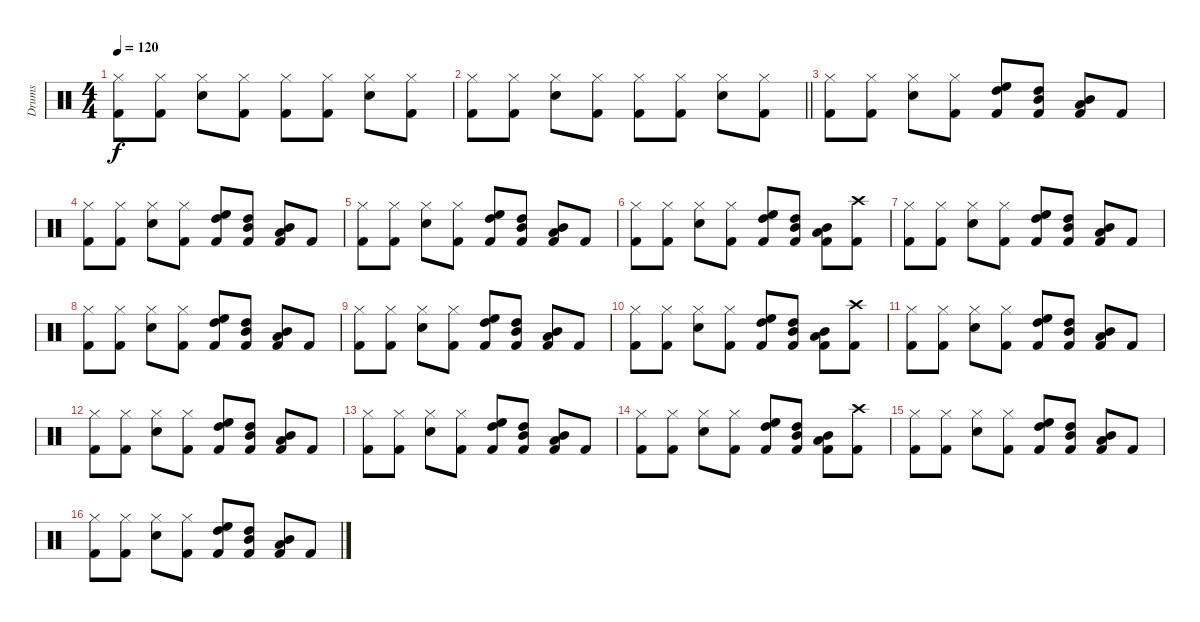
\track ("Drums" "Drums") {instrument percussion}
\staff {score}
\articulation defaults
\ts (4 4)
\tempo 120
\clef neutral
\ks c
("Hi-Hat (closed)" "Kick (hit) 2").8{dy f} ("Hi-Hat (closed)" "Kick (hit) 2").8 ("Hi-Hat (closed)" "Snare (hit) 2").8 ("Hi-Hat (closed)" "Kick (hit) 2").8 ("Hi-Hat (closed)" "Kick (hit) 2").8 ("Hi-Hat (closed)" "Kick (hit) 2").8 ("Hi-Hat (closed)" "Snare (hit) 2").8 ("Hi-Hat (closed)" "Kick (hit) 2").8 |
\barLineRight lightlight
("Hi-Hat (closed)" "Kick (hit) 2").8 ("Hi-Hat (closed)" "Kick (hit) 2").8 ("Hi-Hat (closed)" "Snare (hit) 2").8 ("Hi-Hat (closed)" "Kick (hit) 2").8 ("Hi-Hat (closed)" "Kick (hit) 2").8 ("Hi-Hat (closed)" "Kick (hit) 2").8 ("Hi-Hat (closed)" "Snare (hit) 2").8 ("Hi-Hat (closed)" "Kick (hit) 2").8 |
("Hi-Hat (closed)" "Kick (hit) 2").8 ("Hi-Hat (closed)" "Kick (hit) 2").8 ("Hi-Hat (closed)" "Snare (hit) 2").8 ("Hi-Hat (closed)" "Kick (hit) 2").8 ("High Floor Tom (hit)" "High Tom (hit)" "Kick (hit) 2").8 ("High Tom (hit)" "Mid Tom (hit)" "Kick (hit) 2").8 ("Mid Tom (hit)" "Low Tom (hit)" "Kick (hit) 2").8 "Kick (hit) 2".8 |
("Hi-Hat (closed)" "Kick (hit) 2").8 ("Hi-Hat (closed)" "Kick (hit) 2").8 ("Hi-Hat (closed)" "Snare (hit) 2").8 ("Hi-Hat (closed)" "Kick (hit) 2").8 ("High Floor Tom (hit)" "High Tom (hit)" "Kick (hit) 2").8 ("High Tom (hit)" "Mid Tom (hit)" "Kick (hit) 2").8 ("Mid Tom (hit)" "Low Tom (hit)" "Kick (hit) 2").8 "Kick (hit) 2".8 |
("Hi-Hat (closed)" "Kick (hit) 2").8 ("Hi-Hat (closed)" "Kick (hit) 2").8 ("Hi-Hat (closed)" "Snare (hit) 2").8 ("Hi-Hat (closed)" "Kick (hit) 2").8 ("High Floor Tom (hit)" "High Tom (hit)" "Kick (hit) 2").8 ("High Tom (hit)" "Mid Tom (hit)" "Kick (hit) 2").8 ("Mid Tom (hit)" "Low Tom (hit)" "Kick (hit) 2").8 "Kick (hit) 2".8 |
("Hi-Hat (closed)" "Kick (hit) 2").8 ("Hi-Hat (closed)" "Kick (hit) 2").8 ("Hi-Hat (closed)" "Snare (hit) 2").8 ("Hi-Hat (closed)" "Kick (hit) 2").8 ("High Floor Tom (hit)" "High Tom (hit)" "Kick (hit) 2").8 ("High Tom (hit)" "Mid Tom (hit)" "Kick (hit) 2").8 ("Mid Tom (hit)" "Low Tom (hit)" "Kick (hit) 2").8 ("Crash high (hit)" "Kick (hit) 2").8 |
("Hi-Hat (closed)" "Kick (hit) 2").8 ("Hi-Hat (closed)" "Kick (hit) 2").8 ("Hi-Hat (closed)" "Snare (hit) 2").8 ("Hi-Hat (closed)" "Kick (hit) 2").8 ("High Floor Tom (hit)" "High Tom (hit)" "Kick (hit) 2").8 ("High Tom (hit)" "Mid Tom (hit)" "Kick (hit) 2").8 ("Mid Tom (hit)" "Low Tom (hit)" "Kick (hit) 2").8 "Kick (hit) 2".8 |
("Hi-Hat (closed)" "Kick (hit) 2").8 ("Hi-Hat (closed)" "Kick (hit) 2").8 ("Hi-Hat (closed)" "Snare (hit) 2").8 ("Hi-Hat (closed)" "Kick (hit) 2").8 ("High Floor Tom (hit)" "High Tom (hit)" "Kick (hit) 2").8 ("High Tom (hit)" "Mid Tom (hit)" "Kick (hit) 2").8 ("Mid Tom (hit)" "Low Tom (hit)" "Kick (hit) 2").8 "Kick (hit) 2".8 |
("Hi-Hat (closed)" "Kick (hit) 2").8 ("Hi-Hat (closed)" "Kick (hit) 2").8 ("Hi-Hat (closed)" "Snare (hit) 2").8 ("Hi-Hat (closed)" "Kick (hit) 2").8 ("High Floor Tom (hit)" "High Tom (hit)" "Kick (hit) 2").8 ("High Tom (hit)" "Mid Tom (hit)" "Kick (hit) 2").8 ("Mid Tom (hit)" "Low Tom (hit)" "Kick (hit) 2").8 "Kick (hit) 2".8 |
("Hi-Hat (closed)" "Kick (hit) 2").8 ("Hi-Hat (closed)" "Kick (hit) 2").8 ("Hi-Hat (closed)" "Snare (hit) 2").8 ("Hi-Hat (closed)" "Kick (hit) 2").8 ("High Floor Tom (hit)" "High Tom (hit)" "Kick (hit) 2").8 ("High Tom (hit)" "Mid Tom (hit)" "Kick (hit) 2").8 ("Mid Tom (hit)" "Low Tom (hit)" "Kick (hit) 2").8 ("Crash high (hit)" "Kick (hit) 2").8 |
("Hi-Hat (closed)" "Kick (hit) 2").8 ("Hi-Hat (closed)" "Kick (hit) 2").8 ("Hi-Hat (closed)" "Snare (hit) 2").8 ("Hi-Hat (closed)" "Kick (hit) 2").8 ("High Floor Tom (hit)" "High Tom (hit)" "Kick (hit) 2").8 ("High Tom (hit)" "Mid Tom (hit)" "Kick (hit) 2").8 ("Mid Tom (hit)" "Low Tom (hit)" "Kick (hit) 2").8 "Kick (hit) 2".8 |
("Hi-Hat (closed)" "Kick (hit) 2").8 ("Hi-Hat (closed)" "Kick (hit) 2").8 ("Hi-Hat (closed)" "Snare (hit) 2").8 ("Hi-Hat (closed)" "Kick (hit) 2").8 ("High Floor Tom (hit)" "High Tom (hit)" "Kick (hit) 2").8 ("High Tom (hit)" "Mid Tom (hit)" "Kick (hit) 2").8 ("Mid Tom (hit)" "Low Tom (hit)" "Kick (hit) 2").8 "Kick (hit) 2".8 |
("Hi-Hat (closed)" "Kick (hit) 2").8 ("Hi-Hat (closed)" "Kick (hit) 2").8 ("Hi-Hat (closed)" "Snare (hit) 2").8 ("Hi-Hat (closed)" "Kick (hit) 2").8 ("High Floor Tom (hit)" "High Tom (hit)" "Kick (hit) 2").8 ("High Tom (hit)" "Mid Tom (hit)" "Kick (hit) 2").8 ("Mid Tom (hit)" "Low Tom (hit)" "Kick (hit) 2").8 "Kick (hit) 2".8 |
("Hi-Hat (closed)" "Kick (hit) 2").8 ("Hi-Hat (closed)" "Kick (hit) 2").8 ("Hi-Hat (closed)" "Snare (hit) 2").8 ("Hi-Hat (closed)" "Kick (hit) 2").8 ("High Floor Tom (hit)" "High Tom (hit)" "Kick (hit) 2").8 ("High Tom (hit)" "Mid Tom (hit)" "Kick (hit) 2").8 ("Mid Tom (hit)" "Low Tom (hit)" "Kick (hit) 2").8 ("Crash high (hit)" "Kick (hit) 2").8 |
("Hi-Hat (closed)" "Kick (hit) 2").8 ("Hi-Hat (closed)" "Kick (hit) 2").8 ("Hi-Hat (closed)" "Snare (hit) 2").8 ("Hi-Hat (closed)" "Kick (hit) 2").8 ("High Floor Tom (hit)" "High Tom (hit)" "Kick (hit) 2").8 ("High Tom (hit)" "Mid Tom (hit)" "Kick (hit) 2").8 ("Mid Tom (hit)" "Low Tom (hit)" "Kick (hit) 2").8 "Kick (hit) 2".8 |
("Hi-Hat (closed)" "Kick (hit) 2").8 ("Hi-Hat (closed)" "Kick (hit) 2").8 ("Hi-Hat (closed)" "Snare (hit) 2").8 ("Hi-Hat (closed)" "Kick (hit) 2").8 ("High Floor Tom (hit)" "High Tom (hit)" "Kick (hit) 2").8 ("High Tom (hit)" "Mid Tom (hit)" "Kick (hit) 2").8 ("Mid Tom (hit)" "Low Tom (hit)" "Kick (hit) 2").8 "Kick (hit) 2".8
